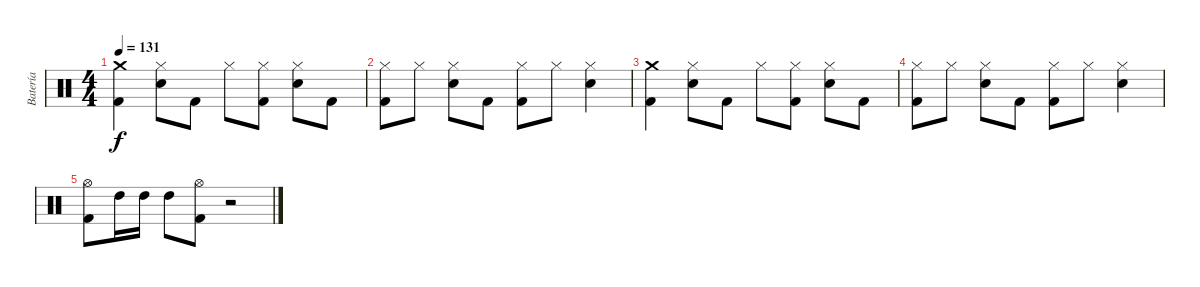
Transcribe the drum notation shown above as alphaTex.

\track ("Batería" "Batería") {instrument percussion}
\staff {score}
\articulation defaults
\ts (4 4)
\tempo 131
\clef neutral
\ks aminor
("Crash medium (hit)" "Kick (hit) 2").4{dy f} ("Hi-Hat (closed)" "Electric Snare (hit)").8 "Kick (hit) 2".8 "Hi-Hat (closed)".8 ("Hi-Hat (closed)" "Kick (hit) 2").8 ("Hi-Hat (closed)" "Electric Snare (hit)").8 "Kick (hit) 2".8 |
("Hi-Hat (closed)" "Kick (hit) 2").8 "Hi-Hat (closed)".8 ("Hi-Hat (closed)" "Electric Snare (hit)").8 "Kick (hit) 2".8 ("Hi-Hat (closed)" "Kick (hit) 2").8 "Hi-Hat (closed)".8 ("Hi-Hat (closed)" "Electric Snare (hit)").4 |
("Crash medium (hit)" "Kick (hit) 2").4 ("Hi-Hat (closed)" "Electric Snare (hit)").8 "Kick (hit) 2".8 "Hi-Hat (closed)".8 ("Hi-Hat (closed)" "Kick (hit) 2").8 ("Hi-Hat (closed)" "Electric Snare (hit)").8 "Kick (hit) 2".8 |
("Hi-Hat (closed)" "Kick (hit) 2").8 "Hi-Hat (closed)".8 ("Hi-Hat (closed)" "Electric Snare (hit)").8 "Kick (hit) 2".8 ("Hi-Hat (closed)" "Kick (hit) 2").8 "Hi-Hat (closed)".8 ("Hi-Hat (closed)" "Electric Snare (hit)").4 |
("Hi-Hat (open)" "Kick (hit) 2").8 "High Tom (hit)".16 "High Tom (hit)".16 "High Tom (hit)".8 ("Hi-Hat (open)" "Kick (hit) 2").8 r.2
